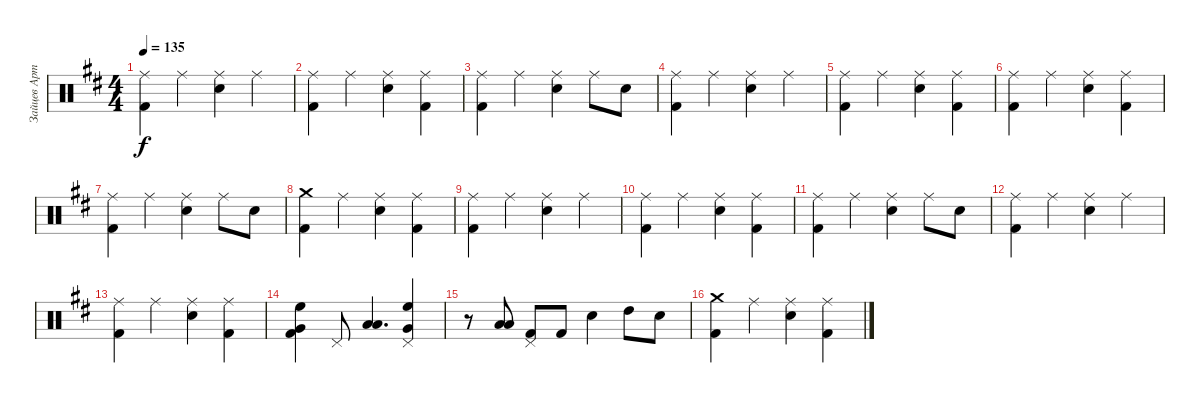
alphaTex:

\track ("Зайцев Артём" "Зайцев Арт") {instrument percussion}
\staff {score}
\articulation defaults
\ts (4 4)
\tempo 135
\clef neutral
\ks d
("Ride (middle)" "Kick (hit) 2").4{dy f} "Ride (middle)".4 ("Ride (middle)" "Snare (hit) 2").4 "Ride (middle)".4 |
("Kick (hit) 2" "Ride (middle)").4 "Ride (middle)".4 ("Ride (middle)" "Snare (hit) 2").4 ("Ride (middle)" "Kick (hit) 2").4 |
("Kick (hit) 2" "Ride (middle)").4 "Ride (middle)".4 ("Ride (middle)" "Snare (hit) 2").4 "Ride (middle)".8 "Snare (hit) 2".8 |
("Ride (middle)" "Kick (hit) 2").4 "Ride (middle)".4 ("Ride (middle)" "Snare (hit) 2").4 "Ride (middle)".4 |
("Kick (hit) 2" "Ride (middle)").4 "Ride (middle)".4 ("Ride (middle)" "Snare (hit) 2").4 ("Ride (middle)" "Kick (hit) 2").4 |
("Kick (hit) 2" "Ride (middle)").4 "Ride (middle)".4 ("Ride (middle)" "Snare (hit) 2").4 ("Ride (middle)" "Kick (hit) 2").4 |
("Kick (hit) 2" "Ride (middle)").4 "Ride (middle)".4 ("Ride (middle)" "Snare (hit) 2").4 "Ride (middle)".8 "Snare (hit) 2".8 |
("Kick (hit) 2" "Crash medium (hit)").4 "Ride (middle)".4 ("Ride (middle)" "Snare (hit) 2").4 ("Ride (middle)" "Kick (hit) 2").4 |
("Ride (middle)" "Kick (hit) 2").4 "Ride (middle)".4 ("Ride (middle)" "Snare (hit) 2").4 "Ride (middle)".4 |
("Kick (hit) 2" "Ride (middle)").4 "Ride (middle)".4 ("Ride (middle)" "Snare (hit) 2").4 ("Ride (middle)" "Kick (hit) 2").4 |
("Kick (hit) 2" "Ride (middle)").4 "Ride (middle)".4 ("Ride (middle)" "Snare (hit) 2").4 "Ride (middle)".8 "Snare (hit) 2".8 |
("Ride (middle)" "Kick (hit) 2").4 "Ride (middle)".4 ("Ride (middle)" "Snare (hit) 2").4 "Ride (middle)".4 |
("Kick (hit) 2" "Ride (middle)").4 "Ride (middle)".4 ("Ride (middle)" "Snare (hit) 2").4 ("Ride (middle)" "Kick (hit) 2").4 |
("Kick (hit) 2" "Very Low Tom (hit)" "High Floor Tom (hit)").4 "Pedal Hi-Hat (hit)".8 ("Low Floor Tom (hit)" "Low Tom (hit)").4{d} ("Very Low Tom (hit)" "High Floor Tom (hit)" "Pedal Hi-Hat (hit)").4 |
r.8 ("Low Floor Tom (hit)" "Low Tom (hit)").8 ("Pedal Hi-Hat (hit)" "Kick (hit) 2").8 "Kick (hit) 2".8 "Snare (hit) 2".4 "High Tom (hit)".8 "Snare (hit) 2".8 |
("Kick (hit) 2" "Crash medium (hit)").4 "Ride (middle)".4 ("Ride (middle)" "Snare (hit) 2").4 ("Ride (middle)" "Kick (hit) 2").4
